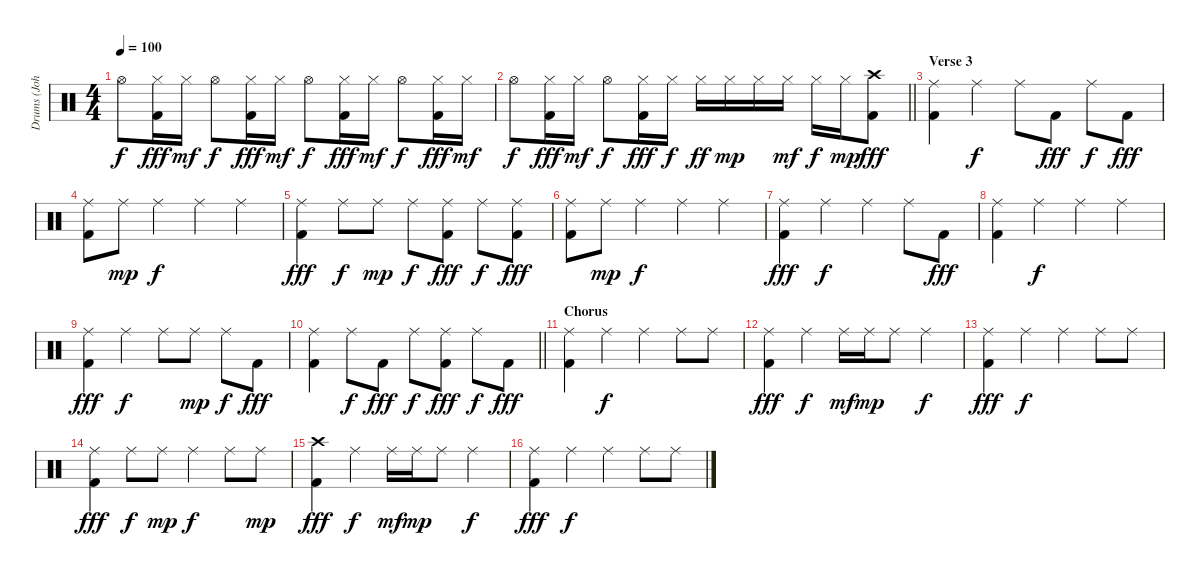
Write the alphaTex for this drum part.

\track ("Drums (John Siomos)" "Drums (Joh") {instrument percussion}
\staff {score}
\articulation defaults
\ts (4 4)
\tempo 100
\clef neutral
\ks c "Hi-Hat (open)".8{dy f}
("Hi-Hat (closed)" "Kick (hit) 2").16{dy fff} "Hi-Hat (closed)".16{dy mf} "Hi-Hat (open)".8{dy f} ("Hi-Hat (closed)" "Kick (hit) 2").16{dy fff} "Hi-Hat (closed)".16{dy mf} "Hi-Hat (open)".8{dy f} ("Hi-Hat (closed)" "Kick (hit) 2").16{dy fff} "Hi-Hat (closed)".16{dy mf} "Hi-Hat (open)".8{dy f} ("Hi-Hat (closed)" "Kick (hit) 2").16{dy fff} "Hi-Hat (closed)".16{dy mf} |
\barLineRight lightlight "Hi-Hat (open)".8{dy f}
("Hi-Hat (closed)" "Kick (hit) 2").16{dy fff} "Hi-Hat (closed)".16{dy mf} "Hi-Hat (open)".8{dy f} ("Hi-Hat (closed)" "Kick (hit) 2").16{dy fff} "Hi-Hat (closed)".16{dy f} "Hi-Hat (closed)".16{dy ff} "Hi-Hat (closed)".16{dy mp} "Hi-Hat (closed)".16 "Hi-Hat (closed)".16{dy mf} "Hi-Hat (closed)".16{dy f} "Hi-Hat (closed)".16{dy mp} ("Crash high (hit)" "Kick (hit) 2").8{dy fff} |
\section ("" "Verse 3")
("Ride (middle)" "Kick (hit) 2").4 "Ride (middle)".4{dy f} "Ride (middle)".8 "Kick (hit) 2".8{dy fff} "Ride (middle)".8{dy f} "Kick (hit) 2".8{dy fff} |
("Ride (middle)" "Kick (hit) 2").8 "Ride (middle)".8{dy mp} "Ride (middle)".4{dy f} "Ride (middle)".4 "Ride (middle)".4 |
("Ride (middle)" "Kick (hit) 2").4{dy fff} "Ride (middle)".8{dy f} "Ride (middle)".8{dy mp} "Ride (middle)".8{dy f} ("Ride (middle)" "Kick (hit) 2").8{dy fff} "Ride (middle)".8{dy f} ("Ride (middle)" "Kick (hit) 2").8{dy fff} |
("Ride (middle)" "Kick (hit) 2").8 "Ride (middle)".8{dy mp} "Ride (middle)".4{dy f} "Ride (middle)".4 "Ride (middle)".4 |
("Ride (middle)" "Kick (hit) 2").4{dy fff} "Ride (middle)".4{dy f} "Ride (middle)".4 "Ride (middle)".8 "Kick (hit) 2".8{dy fff} |
("Ride (middle)" "Kick (hit) 2").4 "Ride (middle)".4{dy f} "Ride (middle)".4 "Ride (middle)".4 |
("Ride (middle)" "Kick (hit) 2").4{dy fff} "Ride (middle)".4{dy f} "Ride (middle)".8 "Ride (middle)".8{dy mp} "Ride (middle)".8{dy f} "Kick (hit) 2".8{dy fff} |
\barLineRight lightlight
("Ride (middle)" "Kick (hit) 2").4 "Ride (middle)".8{dy f} "Kick (hit) 2".8{dy fff} "Ride (middle)".8{dy f} ("Ride (middle)" "Kick (hit) 2").8{dy fff} "Ride (middle)".8{dy f} "Kick (hit) 2".8{dy fff} |
\section ("" "Chorus")
("Ride (middle)" "Kick (hit) 2").4 "Ride (middle)".4{dy f} "Ride (middle)".4 "Ride (middle)".8 "Ride (middle)".8 |
("Ride (middle)" "Kick (hit) 2").4{dy fff} "Ride (middle)".4{dy f} "Ride (middle)".16{dy mf} "Ride (middle)".16{dy mp} "Ride (middle)".8 "Ride (middle)".4{dy f} |
("Ride (middle)" "Kick (hit) 2").4{dy fff} "Ride (middle)".4{dy f} "Ride (middle)".4 "Ride (middle)".8 "Ride (middle)".8 |
("Ride (middle)" "Kick (hit) 2").4{dy fff} "Ride (middle)".8{dy f} "Ride (middle)".8{dy mp} "Ride (middle)".4{dy f} "Ride (middle)".8 "Ride (middle)".8{dy mp} |
("Crash high (hit)" "Kick (hit) 2").4{dy fff} "Ride (middle)".4{dy f} "Ride (middle)".16{dy mf} "Ride (middle)".16{dy mp} "Ride (middle)".8 "Ride (middle)".4{dy f} |
("Ride (middle)" "Kick (hit) 2").4{dy fff} "Ride (middle)".4{dy f} "Ride (middle)".4 "Ride (middle)".8 "Ride (middle)".8
